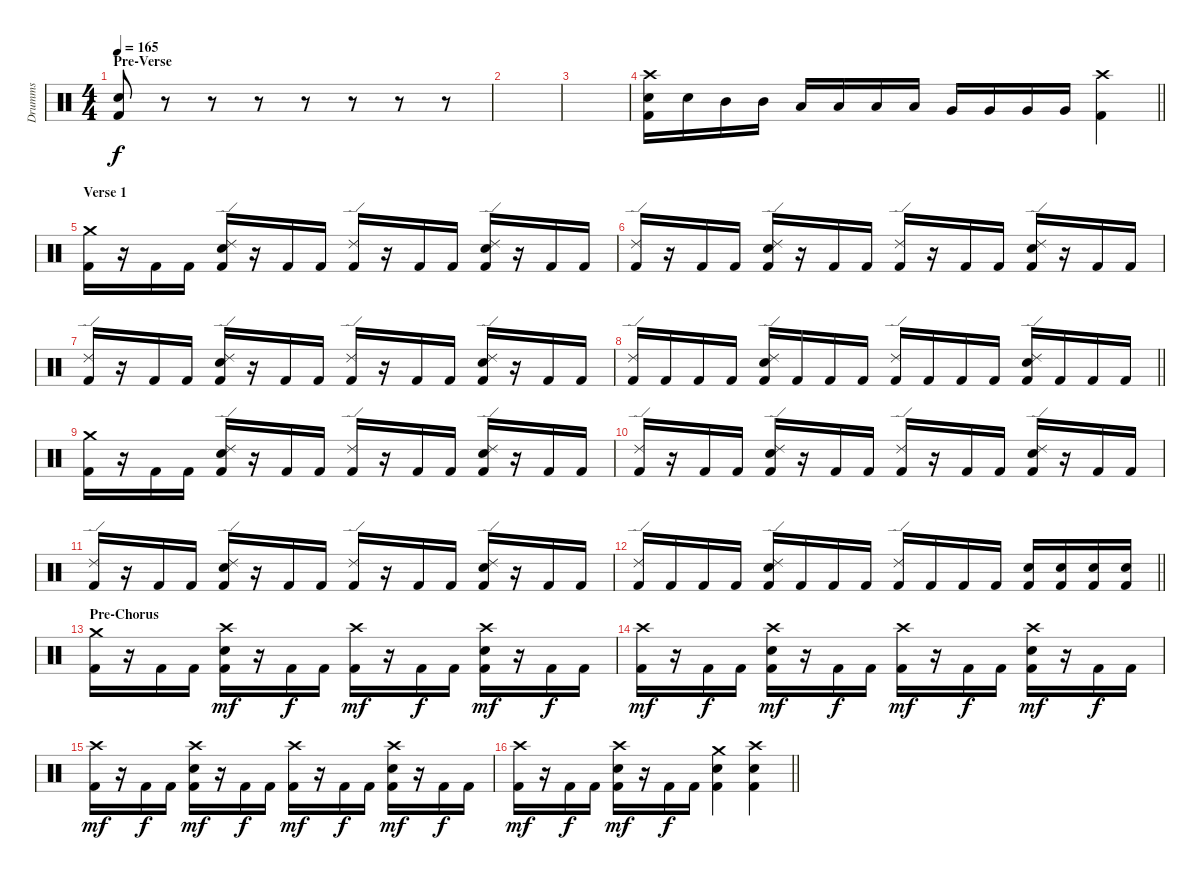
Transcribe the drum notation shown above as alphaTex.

\track ("Drumms" "Drumms") {instrument percussion}
\staff {score}
\articulation defaults
\ts (4 4)
\section ("" "Pre-Verse")
\tempo 165
\clef neutral
\ks c
("Snare (hit) 2" "Kick (hit) 2").8{dy f} r.8 r.8 r.8 r.8 r.8 r.8 r.8 |
|
|
\barLineRight lightlight
("Crash high (hit)" "Snare (hit) 2" "Kick (hit) 2").16 "Snare (hit) 2".16 "Mid Tom (hit)".16 "Mid Tom (hit)".16 "Low Tom (hit)".16 "Low Tom (hit)".16 "Low Tom (hit)".16 "Low Tom (hit)".16 "Very Low Tom (hit)".16 "Very Low Tom (hit)".16 "Very Low Tom (hit)".16 "Very Low Tom (hit)".16 ("Crash high (hit)" "Kick (hit) 2").4 |
\section ("" "Verse 1")
("Crash medium (hit)" "Kick (hit) 2").16 r.16 "Kick (hit) 2".16 "Kick (hit) 2".16 ("Ride (edge) 2" "Snare (hit) 2" "Kick (hit) 2").16 r.16 "Kick (hit) 2".16 "Kick (hit) 2".16 ("Ride (edge) 2" "Kick (hit) 2").16 r.16 "Kick (hit) 2".16 "Kick (hit) 2".16 ("Ride (edge) 2" "Snare (hit) 2" "Kick (hit) 2").16 r.16 "Kick (hit) 2".16 "Kick (hit) 2".16 |
("Ride (edge) 2" "Kick (hit) 2").16 r.16 "Kick (hit) 2".16 "Kick (hit) 2".16 ("Ride (edge) 2" "Snare (hit) 2" "Kick (hit) 2").16 r.16 "Kick (hit) 2".16 "Kick (hit) 2".16 ("Ride (edge) 2" "Kick (hit) 2").16 r.16 "Kick (hit) 2".16 "Kick (hit) 2".16 ("Ride (edge) 2" "Snare (hit) 2" "Kick (hit) 2").16 r.16 "Kick (hit) 2".16 "Kick (hit) 2".16 |
("Ride (edge) 2" "Kick (hit) 2").16 r.16 "Kick (hit) 2".16 "Kick (hit) 2".16 ("Ride (edge) 2" "Snare (hit) 2" "Kick (hit) 2").16 r.16 "Kick (hit) 2".16 "Kick (hit) 2".16 ("Ride (edge) 2" "Kick (hit) 2").16 r.16 "Kick (hit) 2".16 "Kick (hit) 2".16 ("Ride (edge) 2" "Snare (hit) 2" "Kick (hit) 2").16 r.16 "Kick (hit) 2".16 "Kick (hit) 2".16 |
\barLineRight lightlight
("Ride (edge) 2" "Kick (hit) 2").16 "Kick (hit) 2".16 "Kick (hit) 2".16 "Kick (hit) 2".16 ("Ride (edge) 2" "Snare (hit) 2" "Kick (hit) 2").16 "Kick (hit) 2".16 "Kick (hit) 2".16 "Kick (hit) 2".16 ("Ride (edge) 2" "Kick (hit) 2").16 "Kick (hit) 2".16 "Kick (hit) 2".16 "Kick (hit) 2".16 ("Ride (edge) 2" "Snare (hit) 2" "Kick (hit) 2").16 "Kick (hit) 2".16 "Kick (hit) 2".16 "Kick (hit) 2".16 |
("Crash medium (hit)" "Kick (hit) 2").16 r.16 "Kick (hit) 2".16 "Kick (hit) 2".16 ("Ride (edge) 2" "Snare (hit) 2" "Kick (hit) 2").16 r.16 "Kick (hit) 2".16 "Kick (hit) 2".16 ("Ride (edge) 2" "Kick (hit) 2").16 r.16 "Kick (hit) 2".16 "Kick (hit) 2".16 ("Ride (edge) 2" "Snare (hit) 2" "Kick (hit) 2").16 r.16 "Kick (hit) 2".16 "Kick (hit) 2".16 |
("Ride (edge) 2" "Kick (hit) 2").16 r.16 "Kick (hit) 2".16 "Kick (hit) 2".16 ("Ride (edge) 2" "Snare (hit) 2" "Kick (hit) 2").16 r.16 "Kick (hit) 2".16 "Kick (hit) 2".16 ("Ride (edge) 2" "Kick (hit) 2").16 r.16 "Kick (hit) 2".16 "Kick (hit) 2".16 ("Ride (edge) 2" "Snare (hit) 2" "Kick (hit) 2").16 r.16 "Kick (hit) 2".16 "Kick (hit) 2".16 |
("Ride (edge) 2" "Kick (hit) 2").16 r.16 "Kick (hit) 2".16 "Kick (hit) 2".16 ("Ride (edge) 2" "Snare (hit) 2" "Kick (hit) 2").16 r.16 "Kick (hit) 2".16 "Kick (hit) 2".16 ("Ride (edge) 2" "Kick (hit) 2").16 r.16 "Kick (hit) 2".16 "Kick (hit) 2".16 ("Ride (edge) 2" "Snare (hit) 2" "Kick (hit) 2").16 r.16 "Kick (hit) 2".16 "Kick (hit) 2".16 |
\barLineRight lightlight
("Ride (edge) 2" "Kick (hit) 2").16 "Kick (hit) 2".16 "Kick (hit) 2".16 "Kick (hit) 2".16 ("Ride (edge) 2" "Snare (hit) 2" "Kick (hit) 2").16 "Kick (hit) 2".16 "Kick (hit) 2".16 "Kick (hit) 2".16 ("Ride (edge) 2" "Kick (hit) 2").16 "Kick (hit) 2".16 "Kick (hit) 2".16 "Kick (hit) 2".16 ("Snare (hit) 2" "Kick (hit) 2").16 ("Snare (hit) 2" "Kick (hit) 2").16 ("Snare (hit) 2" "Kick (hit) 2").16 ("Snare (hit) 2" "Kick (hit) 2").16 |
\section ("" "Pre-Chorus")
("Crash medium (hit)" "Kick (hit) 2").16 r.16 "Kick (hit) 2".16 "Kick (hit) 2".16 ("Crash high (hit)" "Snare (hit) 2" "Kick (hit) 2").16{dy mf} r.16 "Kick (hit) 2".16{dy f} "Kick (hit) 2".16 ("Crash high (hit)" "Kick (hit) 2").16{dy mf} r.16 "Kick (hit) 2".16{dy f} "Kick (hit) 2".16 ("Crash high (hit)" "Snare (hit) 2" "Kick (hit) 2").16{dy mf} r.16 "Kick (hit) 2".16{dy f} "Kick (hit) 2".16 |
("Crash high (hit)" "Kick (hit) 2").16{dy mf} r.16 "Kick (hit) 2".16{dy f} "Kick (hit) 2".16 ("Crash high (hit)" "Snare (hit) 2" "Kick (hit) 2").16{dy mf} r.16 "Kick (hit) 2".16{dy f} "Kick (hit) 2".16 ("Crash high (hit)" "Kick (hit) 2").16{dy mf} r.16 "Kick (hit) 2".16{dy f} "Kick (hit) 2".16 ("Crash high (hit)" "Snare (hit) 2" "Kick (hit) 2").16{dy mf} r.16 "Kick (hit) 2".16{dy f} "Kick (hit) 2".16 |
("Crash high (hit)" "Kick (hit) 2").16{dy mf} r.16 "Kick (hit) 2".16{dy f} "Kick (hit) 2".16 ("Crash high (hit)" "Snare (hit) 2" "Kick (hit) 2").16{dy mf} r.16 "Kick (hit) 2".16{dy f} "Kick (hit) 2".16 ("Crash high (hit)" "Kick (hit) 2").16{dy mf} r.16 "Kick (hit) 2".16{dy f} "Kick (hit) 2".16 ("Crash high (hit)" "Snare (hit) 2" "Kick (hit) 2").16{dy mf} r.16 "Kick (hit) 2".16{dy f} "Kick (hit) 2".16 |
\barLineRight lightlight
("Crash high (hit)" "Kick (hit) 2").16{dy mf} r.16 "Kick (hit) 2".16{dy f} "Kick (hit) 2".16 ("Crash high (hit)" "Snare (hit) 2" "Kick (hit) 2").16{dy mf} r.16 "Kick (hit) 2".16{dy f} "Kick (hit) 2".16 ("Crash medium (hit)" "Snare (hit) 2" "Kick (hit) 2").4 ("Crash high (hit)" "Snare (hit) 2" "Kick (hit) 2").4
